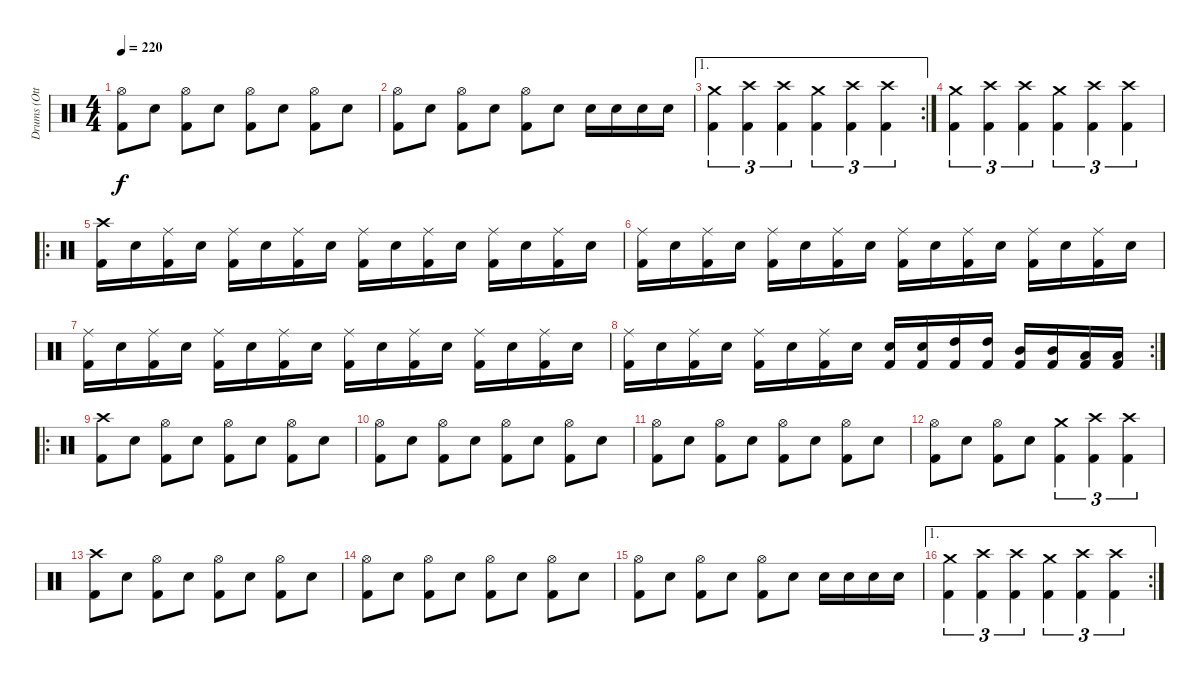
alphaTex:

\track ("Drums (Otto)" "Drums (Ott") {instrument percussion}
\staff {score}
\articulation defaults
\ts (4 4)
\tempo 220
\clef neutral
\ks c
("Hi-Hat (open)" "Kick (hit) 2").8{dy f} "Electric Snare (hit)".8 ("Hi-Hat (open)" "Kick (hit) 2").8 "Electric Snare (hit)".8 ("Hi-Hat (open)" "Kick (hit) 2").8 "Electric Snare (hit)".8 ("Hi-Hat (open)" "Kick (hit) 2").8 "Electric Snare (hit)".8 |
("Hi-Hat (open)" "Kick (hit) 2").8 "Electric Snare (hit)".8 ("Hi-Hat (open)" "Kick (hit) 2").8 "Electric Snare (hit)".8 ("Hi-Hat (open)" "Kick (hit) 2").8 "Electric Snare (hit)".8 "Electric Snare (hit)".16 "Electric Snare (hit)".16 "Electric Snare (hit)".16 "Electric Snare (hit)".16 |
\ae 1
\rc 2
("Crash medium (hit)" "Kick (hit) 2").4{tu (3 2)} ("Crash high (hit)" "Kick (hit) 2").4{tu (3 2)} ("Crash high (hit)" "Kick (hit) 2").4{tu (3 2)} ("Crash medium (hit)" "Kick (hit) 2").4{tu (3 2)} ("Crash high (hit)" "Kick (hit) 2").4{tu (3 2)} ("Crash high (hit)" "Kick (hit) 2").4{tu (3 2)} |
("Crash medium (hit)" "Kick (hit) 2").4{tu (3 2)} ("Crash high (hit)" "Kick (hit) 2").4{tu (3 2)} ("Crash high (hit)" "Kick (hit) 2").4{tu (3 2)} ("Crash medium (hit)" "Kick (hit) 2").4{tu (3 2)} ("Crash high (hit)" "Kick (hit) 2").4{tu (3 2)} ("Crash high (hit)" "Kick (hit) 2").4{tu (3 2)} |
\ro
("Crash high (hit)" "Kick (hit) 2").16 "Electric Snare (hit)".16 ("Ride (middle)" "Kick (hit) 2").16 "Electric Snare (hit)".16 ("Ride (middle)" "Kick (hit) 2").16 "Electric Snare (hit)".16 ("Ride (middle)" "Kick (hit) 2").16 "Electric Snare (hit)".16 ("Ride (middle)" "Kick (hit) 2").16 "Electric Snare (hit)".16 ("Ride (middle)" "Kick (hit) 2").16 "Electric Snare (hit)".16 ("Ride (middle)" "Kick (hit) 2").16 "Electric Snare (hit)".16 ("Ride (middle)" "Kick (hit) 2").16 "Electric Snare (hit)".16 |
("Ride (middle)" "Kick (hit) 2").16 "Electric Snare (hit)".16 ("Ride (middle)" "Kick (hit) 2").16 "Electric Snare (hit)".16 ("Ride (middle)" "Kick (hit) 2").16 "Electric Snare (hit)".16 ("Ride (middle)" "Kick (hit) 2").16 "Electric Snare (hit)".16 ("Ride (middle)" "Kick (hit) 2").16 "Electric Snare (hit)".16 ("Ride (middle)" "Kick (hit) 2").16 "Electric Snare (hit)".16 ("Ride (middle)" "Kick (hit) 2").16 "Electric Snare (hit)".16 ("Ride (middle)" "Kick (hit) 2").16 "Electric Snare (hit)".16 |
("Ride (middle)" "Kick (hit) 2").16 "Electric Snare (hit)".16 ("Ride (middle)" "Kick (hit) 2").16 "Electric Snare (hit)".16 ("Ride (middle)" "Kick (hit) 2").16 "Electric Snare (hit)".16 ("Ride (middle)" "Kick (hit) 2").16 "Electric Snare (hit)".16 ("Ride (middle)" "Kick (hit) 2").16 "Electric Snare (hit)".16 ("Ride (middle)" "Kick (hit) 2").16 "Electric Snare (hit)".16 ("Ride (middle)" "Kick (hit) 2").16 "Electric Snare (hit)".16 ("Ride (middle)" "Kick (hit) 2").16 "Electric Snare (hit)".16 |
\rc 2
("Ride (middle)" "Kick (hit) 2").16 "Electric Snare (hit)".16 ("Ride (middle)" "Kick (hit) 2").16 "Electric Snare (hit)".16 ("Ride (middle)" "Kick (hit) 2").16 "Electric Snare (hit)".16 ("Ride (middle)" "Kick (hit) 2").16 "Electric Snare (hit)".16 ("Electric Snare (hit)" "Kick (hit) 2").16 ("Electric Snare (hit)" "Kick (hit) 2").16 ("High Tom (hit)" "Kick (hit) 2").16 ("High Tom (hit)" "Kick (hit) 2").16 ("Mid Tom (hit)" "Kick (hit) 2").16 ("Mid Tom (hit)" "Kick (hit) 2").16 ("Low Tom (hit)" "Kick (hit) 2").16 ("Low Tom (hit)" "Kick (hit) 2").16 |
\ro
("Crash high (hit)" "Kick (hit) 2").8 "Electric Snare (hit)".8 ("Hi-Hat (open)" "Kick (hit) 2").8 "Electric Snare (hit)".8 ("Hi-Hat (open)" "Kick (hit) 2").8 "Electric Snare (hit)".8 ("Hi-Hat (open)" "Kick (hit) 2").8 "Electric Snare (hit)".8 |
("Hi-Hat (open)" "Kick (hit) 2").8 "Electric Snare (hit)".8 ("Hi-Hat (open)" "Kick (hit) 2").8 "Electric Snare (hit)".8 ("Hi-Hat (open)" "Kick (hit) 2").8 "Electric Snare (hit)".8 ("Hi-Hat (open)" "Kick (hit) 2").8 "Electric Snare (hit)".8 |
("Hi-Hat (open)" "Kick (hit) 2").8 "Electric Snare (hit)".8 ("Hi-Hat (open)" "Kick (hit) 2").8 "Electric Snare (hit)".8 ("Hi-Hat (open)" "Kick (hit) 2").8 "Electric Snare (hit)".8 ("Hi-Hat (open)" "Kick (hit) 2").8 "Electric Snare (hit)".8 |
("Hi-Hat (open)" "Kick (hit) 2").8 "Electric Snare (hit)".8 ("Hi-Hat (open)" "Kick (hit) 2").8 "Electric Snare (hit)".8 ("Crash medium (hit)" "Kick (hit) 2").4{tu (3 2)} ("Crash high (hit)" "Kick (hit) 2").4{tu (3 2)} ("Crash high (hit)" "Kick (hit) 2").4{tu (3 2)} |
("Crash high (hit)" "Kick (hit) 2").8 "Electric Snare (hit)".8 ("Hi-Hat (open)" "Kick (hit) 2").8 "Electric Snare (hit)".8 ("Hi-Hat (open)" "Kick (hit) 2").8 "Electric Snare (hit)".8 ("Hi-Hat (open)" "Kick (hit) 2").8 "Electric Snare (hit)".8 |
("Hi-Hat (open)" "Kick (hit) 2").8 "Electric Snare (hit)".8 ("Hi-Hat (open)" "Kick (hit) 2").8 "Electric Snare (hit)".8 ("Hi-Hat (open)" "Kick (hit) 2").8 "Electric Snare (hit)".8 ("Hi-Hat (open)" "Kick (hit) 2").8 "Electric Snare (hit)".8 |
("Hi-Hat (open)" "Kick (hit) 2").8 "Electric Snare (hit)".8 ("Hi-Hat (open)" "Kick (hit) 2").8 "Electric Snare (hit)".8 ("Hi-Hat (open)" "Kick (hit) 2").8 "Electric Snare (hit)".8 "Electric Snare (hit)".16 "Electric Snare (hit)".16 "Electric Snare (hit)".16 "Electric Snare (hit)".16 |
\ae 1
\rc 2
("Crash medium (hit)" "Kick (hit) 2").4{tu (3 2)} ("Crash high (hit)" "Kick (hit) 2").4{tu (3 2)} ("Crash high (hit)" "Kick (hit) 2").4{tu (3 2)} ("Crash medium (hit)" "Kick (hit) 2").4{tu (3 2)} ("Crash high (hit)" "Kick (hit) 2").4{tu (3 2)} ("Crash high (hit)" "Kick (hit) 2").4{tu (3 2)}
